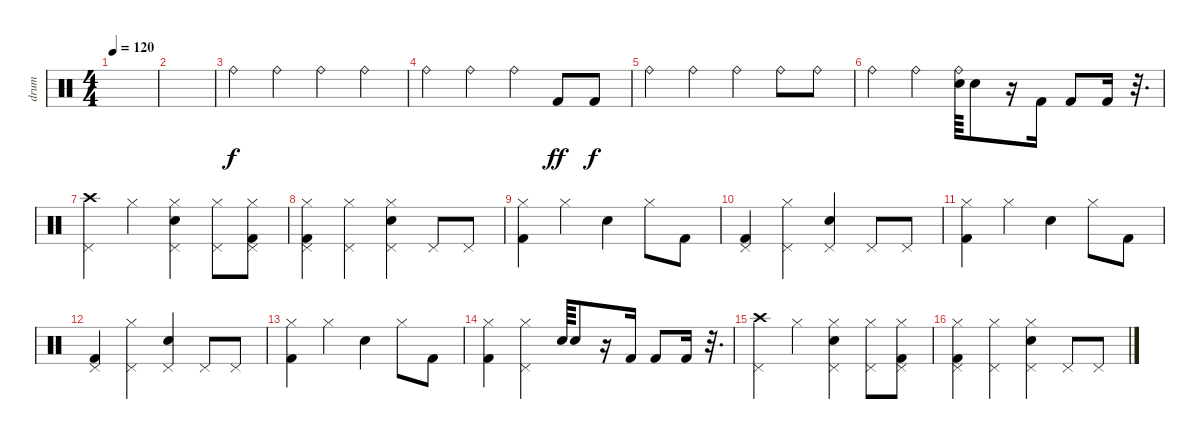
\track ("drum" "drum") {instrument percussion}
\staff {score}
\articulation defaults
\ts (4 4)
\tempo 120
\clef neutral
\ks c
|
|
"Ride (bell)".4 "Ride (bell)".4 "Ride (bell)".4 "Ride (bell)".4 |
"Ride (bell)".4 "Ride (bell)".4 "Ride (bell)".4 "Kick (hit) 2".8{dy ff} "Kick (hit) 2".8{dy f} |
"Ride (bell)".4 "Ride (bell)".4 "Ride (bell)".4 "Ride (bell)".8 "Ride (bell)".8 |
"Ride (bell)".4 "Ride (bell)".4 ("Ride (bell)" "Snare (hit) 2").64 "Snare (hit) 2".8 r.16 "Kick (hit) 2".16 "Kick (hit) 2".8 "Kick (hit) 2".16 r.32{d} |
("Crash high (hit)" "Pedal Hi-Hat (hit)").4 "Hi-Hat (closed)".4 ("Snare (hit) 2" "Pedal Hi-Hat (hit)" "Hi-Hat (closed)").4 ("Hi-Hat (closed)" "Pedal Hi-Hat (hit)").8 ("Kick (hit) 2" "Pedal Hi-Hat (hit)" "Hi-Hat (closed)").8 |
("Kick (hit) 2" "Pedal Hi-Hat (hit)" "Hi-Hat (closed)").4 ("Hi-Hat (closed)" "Pedal Hi-Hat (hit)").4 ("Snare (hit) 2" "Pedal Hi-Hat (hit)" "Hi-Hat (closed)").4 "Pedal Hi-Hat (hit)".8 "Pedal Hi-Hat (hit)".8 |
("Hi-Hat (closed)" "Kick (hit) 2").4 "Hi-Hat (closed)".4 "Snare (hit) 2".4 "Hi-Hat (closed)".8 "Kick (hit) 2".8 |
("Kick (hit) 2" "Pedal Hi-Hat (hit)").4 ("Hi-Hat (closed)" "Pedal Hi-Hat (hit)").4 ("Snare (hit) 2" "Pedal Hi-Hat (hit)").4 "Pedal Hi-Hat (hit)".8 "Pedal Hi-Hat (hit)".8 |
("Hi-Hat (closed)" "Kick (hit) 2").4 "Hi-Hat (closed)".4 "Snare (hit) 2".4 "Hi-Hat (closed)".8 "Kick (hit) 2".8 |
("Kick (hit) 2" "Pedal Hi-Hat (hit)").4 ("Hi-Hat (closed)" "Pedal Hi-Hat (hit)").4 ("Snare (hit) 2" "Pedal Hi-Hat (hit)").4 "Pedal Hi-Hat (hit)".8 "Pedal Hi-Hat (hit)".8 |
("Hi-Hat (closed)" "Kick (hit) 2").4 "Hi-Hat (closed)".4 "Snare (hit) 2".4 "Hi-Hat (closed)".8 "Kick (hit) 2".8 |
("Hi-Hat (closed)" "Kick (hit) 2").4 ("Hi-Hat (closed)" "Pedal Hi-Hat (hit)").4 "Snare (hit) 2".64 "Snare (hit) 2".8 r.16 "Kick (hit) 2".16 "Kick (hit) 2".8 "Kick (hit) 2".16 r.32{d} |
("Crash high (hit)" "Pedal Hi-Hat (hit)").4 "Hi-Hat (closed)".4 ("Snare (hit) 2" "Pedal Hi-Hat (hit)" "Hi-Hat (closed)").4 ("Hi-Hat (closed)" "Pedal Hi-Hat (hit)").8 ("Kick (hit) 2" "Pedal Hi-Hat (hit)" "Hi-Hat (closed)").8 |
("Kick (hit) 2" "Pedal Hi-Hat (hit)" "Hi-Hat (closed)").4 ("Hi-Hat (closed)" "Pedal Hi-Hat (hit)").4 ("Snare (hit) 2" "Pedal Hi-Hat (hit)" "Hi-Hat (closed)").4 "Pedal Hi-Hat (hit)".8 "Pedal Hi-Hat (hit)".8
